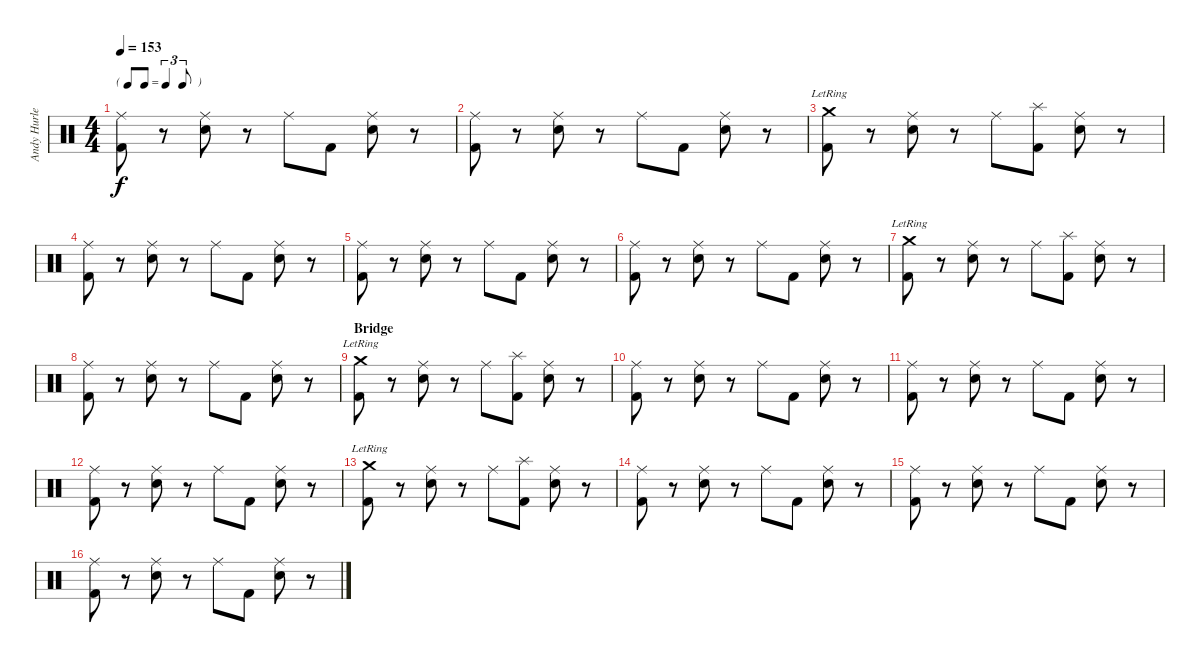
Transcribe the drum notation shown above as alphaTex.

\track ("Andy Hurley" "Andy Hurle") {instrument percussion}
\staff {score}
\articulation defaults
\ts (4 4)
\tf triplet8th
\tempo 153
\clef neutral
\ks c
("Ride (middle)" "Kick (hit) 2").8{dy f} r.8 ("Ride (middle)" "Electric Snare (hit)").8 r.8 "Ride (middle)".8 "Kick (hit) 2".8 ("Ride (middle)" "Electric Snare (hit)").8 r.8 |
("Ride (middle)" "Kick (hit) 2").8 r.8 ("Ride (middle)" "Electric Snare (hit)").8 r.8 "Ride (middle)".8 "Kick (hit) 2".8 ("Ride (middle)" "Electric Snare (hit)").8 r.8 |
("Crash medium (hit)"{lr} "Kick (hit) 2").8 r.8 ("Ride (middle)" "Electric Snare (hit)").8 r.8 "Ride (middle)".8 ("Splash (hit)" "Kick (hit) 2").8 ("Ride (middle)" "Electric Snare (hit)").8 r.8 |
("Ride (middle)" "Kick (hit) 2").8 r.8 ("Ride (middle)" "Electric Snare (hit)").8 r.8 "Ride (middle)".8 "Kick (hit) 2".8 ("Ride (middle)" "Electric Snare (hit)").8 r.8 |
("Ride (middle)" "Kick (hit) 2").8 r.8 ("Ride (middle)" "Electric Snare (hit)").8 r.8 "Ride (middle)".8 "Kick (hit) 2".8 ("Ride (middle)" "Electric Snare (hit)").8 r.8 |
("Ride (middle)" "Kick (hit) 2").8 r.8 ("Ride (middle)" "Electric Snare (hit)").8 r.8 "Ride (middle)".8 "Kick (hit) 2".8 ("Ride (middle)" "Electric Snare (hit)").8 r.8 |
("Crash medium (hit)"{lr} "Kick (hit) 2").8 r.8 ("Ride (middle)" "Electric Snare (hit)").8 r.8 "Ride (middle)".8 ("Splash (hit)" "Kick (hit) 2").8 ("Ride (middle)" "Electric Snare (hit)").8 r.8 |
("Ride (middle)" "Kick (hit) 2").8 r.8 ("Ride (middle)" "Electric Snare (hit)").8 r.8 "Ride (middle)".8 "Kick (hit) 2".8 ("Ride (middle)" "Electric Snare (hit)").8 r.8 |
\section ("" "Bridge")
("Crash medium (hit)"{lr} "Kick (hit) 2").8 r.8 ("Ride (middle)" "Electric Snare (hit)").8 r.8 "Ride (middle)".8 ("Splash (hit)" "Kick (hit) 2").8 ("Ride (middle)" "Electric Snare (hit)").8 r.8 |
("Ride (middle)" "Kick (hit) 2").8 r.8 ("Ride (middle)" "Electric Snare (hit)").8 r.8 "Ride (middle)".8 "Kick (hit) 2".8 ("Ride (middle)" "Electric Snare (hit)").8 r.8 |
("Ride (middle)" "Kick (hit) 2").8 r.8 ("Ride (middle)" "Electric Snare (hit)").8 r.8 "Ride (middle)".8 "Kick (hit) 2".8 ("Ride (middle)" "Electric Snare (hit)").8 r.8 |
("Ride (middle)" "Kick (hit) 2").8 r.8 ("Ride (middle)" "Electric Snare (hit)").8 r.8 "Ride (middle)".8 "Kick (hit) 2".8 ("Ride (middle)" "Electric Snare (hit)").8 r.8 |
("Crash medium (hit)"{lr} "Kick (hit) 2").8 r.8 ("Ride (middle)" "Electric Snare (hit)").8 r.8 "Ride (middle)".8 ("Splash (hit)" "Kick (hit) 2").8 ("Ride (middle)" "Electric Snare (hit)").8 r.8 |
("Ride (middle)" "Kick (hit) 2").8 r.8 ("Ride (middle)" "Electric Snare (hit)").8 r.8 "Ride (middle)".8 "Kick (hit) 2".8 ("Ride (middle)" "Electric Snare (hit)").8 r.8 |
("Ride (middle)" "Kick (hit) 2").8 r.8 ("Ride (middle)" "Electric Snare (hit)").8 r.8 "Ride (middle)".8 "Kick (hit) 2".8 ("Ride (middle)" "Electric Snare (hit)").8 r.8 |
("Ride (middle)" "Kick (hit) 2").8 r.8 ("Ride (middle)" "Electric Snare (hit)").8 r.8 "Ride (middle)".8 "Kick (hit) 2".8 ("Ride (middle)" "Electric Snare (hit)").8 r.8
